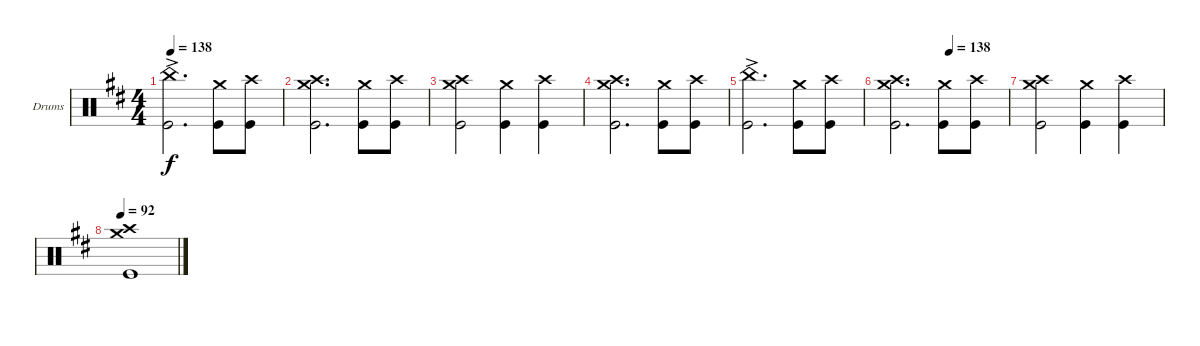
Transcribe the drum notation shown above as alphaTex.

\defaultSystemsLayout 4
\bracketExtendMode groupsimilarinstruments
\firstSystemTrackNameOrientation horizontal
\otherSystemsTrackNameOrientation horizontal
\track ("Drumkit" "Drums") {instrument percussion}
\staff {score}
\articulation defaults
\ts (4 4)
\tempo 138
\clef neutral
\ks d
("Kick (hit)" "China (hit)"{ac}).2{d dy f} ("Crash medium (hit)" "Kick (hit)").8 ("Crash high (hit)" "Kick (hit)").8 |
("Kick (hit)" "Crash medium (hit)" "Crash high (hit)").2{d} ("Crash medium (hit)" "Kick (hit)").8 ("Crash high (hit)" "Kick (hit)").8 |
("Kick (hit)" "Crash medium (hit)" "Crash high (hit)").2 ("Crash medium (hit)" "Kick (hit)").4 ("Crash high (hit)" "Kick (hit)").4 |
("Kick (hit)" "Crash medium (hit)" "Crash high (hit)").2{d} ("Crash medium (hit)" "Kick (hit)").8 ("Crash high (hit)" "Kick (hit)").8 |
("Kick (hit)" "China (hit)"{ac}).2{d} ("Crash medium (hit)" "Kick (hit)").8 ("Crash high (hit)" "Kick (hit)").8 |
\tempo (138 0.50625)
("Kick (hit)" "Crash medium (hit)" "Crash high (hit)").2{d} ("Crash medium (hit)" "Kick (hit)").8 ("Crash high (hit)" "Kick (hit)").8 |
("Kick (hit)" "Crash medium (hit)" "Crash high (hit)").2 ("Crash medium (hit)" "Kick (hit)").4 ("Crash high (hit)" "Kick (hit)").4 |
\tempo (92 0.00625)
("Kick (hit)" "Crash medium (hit)" "Crash high (hit)").1
